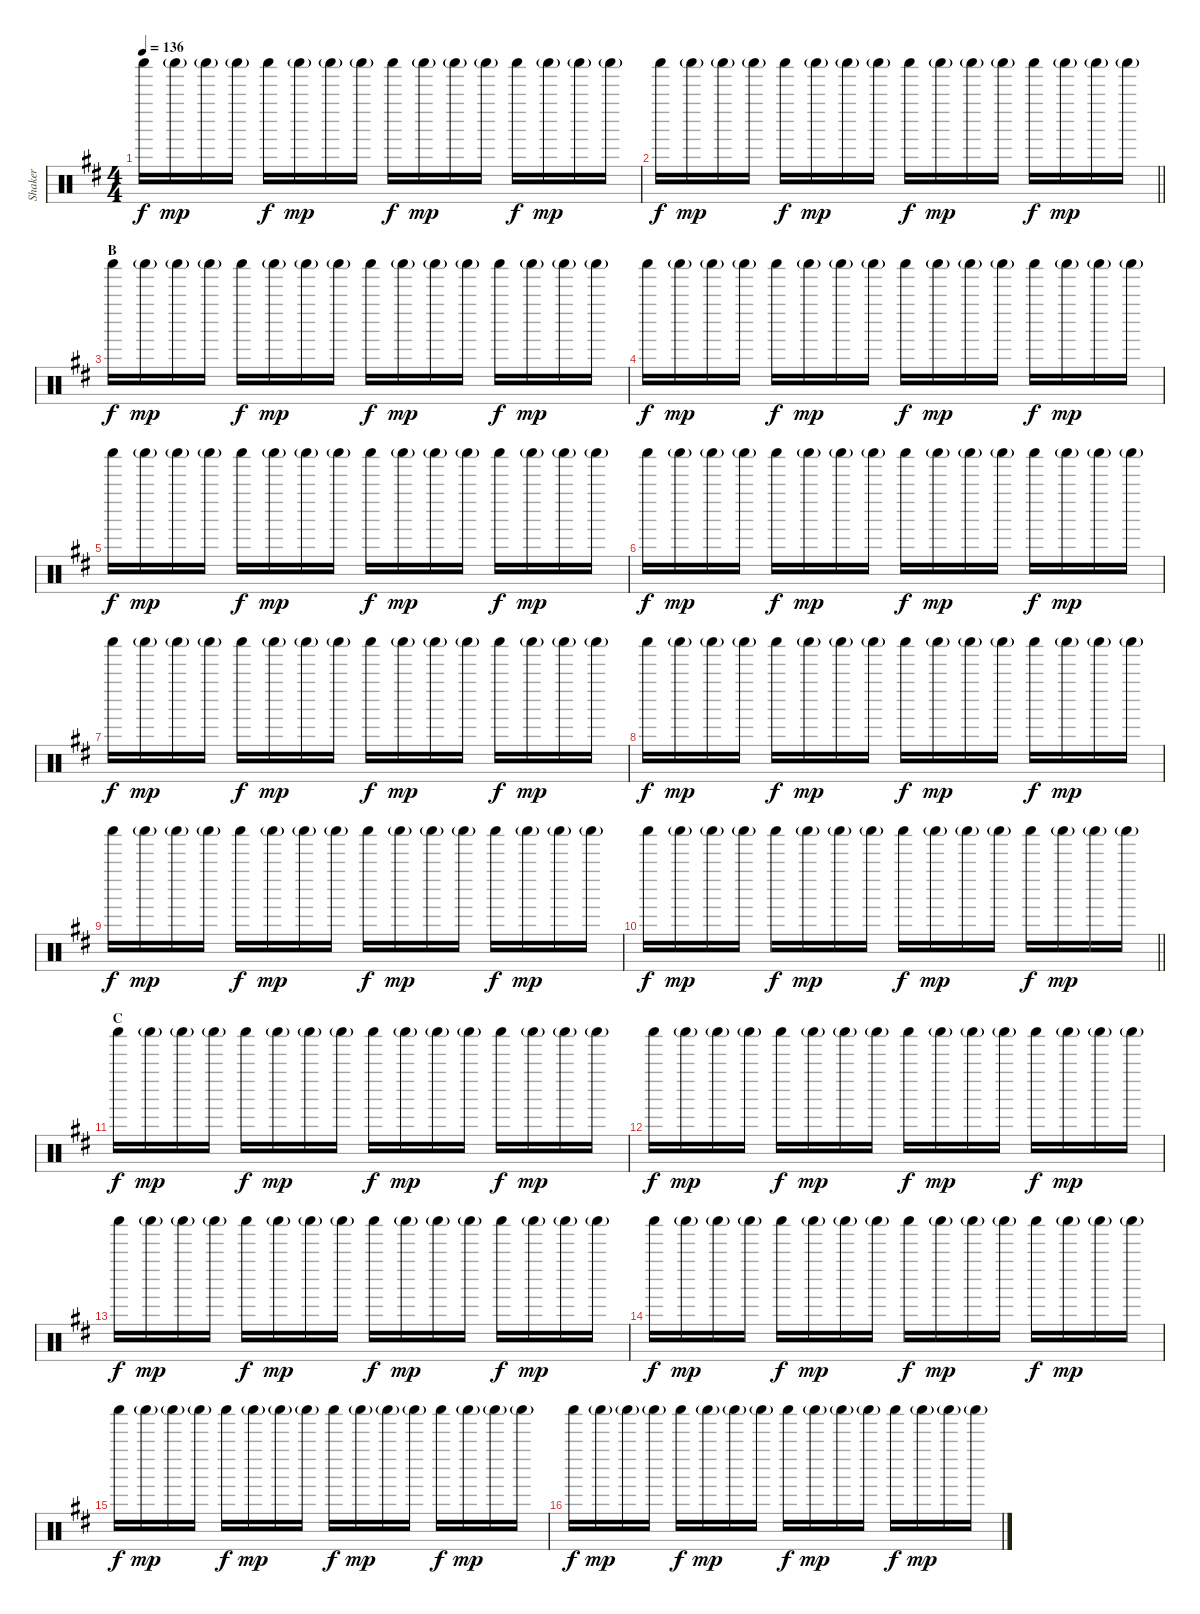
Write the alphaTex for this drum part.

\track ("Shaker" "Shaker") {instrument percussion}
\staff {score}
\articulation defaults
\ts (4 4)
\tempo 136
\clef neutral
\ks d "Shaker (hit)".16{dy f} "Shaker (hit)"{g}.16{dy mp} "Shaker (hit)"{g}.16 "Shaker (hit)"{g}.16 "Shaker (hit)".16{dy f} "Shaker (hit)"{g}.16{dy mp} "Shaker (hit)"{g}.16 "Shaker (hit)"{g}.16 "Shaker (hit)".16{dy f} "Shaker (hit)"{g}.16{dy mp} "Shaker (hit)"{g}.16 "Shaker (hit)"{g}.16 "Shaker (hit)".16{dy f} "Shaker (hit)"{g}.16{dy mp} "Shaker (hit)"{g}.16 "Shaker (hit)"{g}.16
|
\barLineRight lightlight "Shaker (hit)".16{dy f} "Shaker (hit)"{g}.16{dy mp} "Shaker (hit)"{g}.16 "Shaker (hit)"{g}.16 "Shaker (hit)".16{dy f} "Shaker (hit)"{g}.16{dy mp} "Shaker (hit)"{g}.16 "Shaker (hit)"{g}.16 "Shaker (hit)".16{dy f} "Shaker (hit)"{g}.16{dy mp} "Shaker (hit)"{g}.16 "Shaker (hit)"{g}.16 "Shaker (hit)".16{dy f} "Shaker (hit)"{g}.16{dy mp} "Shaker (hit)"{g}.16 "Shaker (hit)"{g}.16
|
\section ("" "B")
"Shaker (hit)".16{dy f} "Shaker (hit)"{g}.16{dy mp} "Shaker (hit)"{g}.16 "Shaker (hit)"{g}.16 "Shaker (hit)".16{dy f} "Shaker (hit)"{g}.16{dy mp} "Shaker (hit)"{g}.16 "Shaker (hit)"{g}.16 "Shaker (hit)".16{dy f} "Shaker (hit)"{g}.16{dy mp} "Shaker (hit)"{g}.16 "Shaker (hit)"{g}.16 "Shaker (hit)".16{dy f} "Shaker (hit)"{g}.16{dy mp} "Shaker (hit)"{g}.16 "Shaker (hit)"{g}.16 |
"Shaker (hit)".16{dy f} "Shaker (hit)"{g}.16{dy mp} "Shaker (hit)"{g}.16 "Shaker (hit)"{g}.16 "Shaker (hit)".16{dy f} "Shaker (hit)"{g}.16{dy mp} "Shaker (hit)"{g}.16 "Shaker (hit)"{g}.16 "Shaker (hit)".16{dy f} "Shaker (hit)"{g}.16{dy mp} "Shaker (hit)"{g}.16 "Shaker (hit)"{g}.16 "Shaker (hit)".16{dy f} "Shaker (hit)"{g}.16{dy mp} "Shaker (hit)"{g}.16 "Shaker (hit)"{g}.16 |
"Shaker (hit)".16{dy f} "Shaker (hit)"{g}.16{dy mp} "Shaker (hit)"{g}.16 "Shaker (hit)"{g}.16 "Shaker (hit)".16{dy f} "Shaker (hit)"{g}.16{dy mp} "Shaker (hit)"{g}.16 "Shaker (hit)"{g}.16 "Shaker (hit)".16{dy f} "Shaker (hit)"{g}.16{dy mp} "Shaker (hit)"{g}.16 "Shaker (hit)"{g}.16 "Shaker (hit)".16{dy f} "Shaker (hit)"{g}.16{dy mp} "Shaker (hit)"{g}.16 "Shaker (hit)"{g}.16 |
"Shaker (hit)".16{dy f} "Shaker (hit)"{g}.16{dy mp} "Shaker (hit)"{g}.16 "Shaker (hit)"{g}.16 "Shaker (hit)".16{dy f} "Shaker (hit)"{g}.16{dy mp} "Shaker (hit)"{g}.16 "Shaker (hit)"{g}.16 "Shaker (hit)".16{dy f} "Shaker (hit)"{g}.16{dy mp} "Shaker (hit)"{g}.16 "Shaker (hit)"{g}.16 "Shaker (hit)".16{dy f} "Shaker (hit)"{g}.16{dy mp} "Shaker (hit)"{g}.16 "Shaker (hit)"{g}.16 |
"Shaker (hit)".16{dy f} "Shaker (hit)"{g}.16{dy mp} "Shaker (hit)"{g}.16 "Shaker (hit)"{g}.16 "Shaker (hit)".16{dy f} "Shaker (hit)"{g}.16{dy mp} "Shaker (hit)"{g}.16 "Shaker (hit)"{g}.16 "Shaker (hit)".16{dy f} "Shaker (hit)"{g}.16{dy mp} "Shaker (hit)"{g}.16 "Shaker (hit)"{g}.16 "Shaker (hit)".16{dy f} "Shaker (hit)"{g}.16{dy mp} "Shaker (hit)"{g}.16 "Shaker (hit)"{g}.16 |
"Shaker (hit)".16{dy f} "Shaker (hit)"{g}.16{dy mp} "Shaker (hit)"{g}.16 "Shaker (hit)"{g}.16 "Shaker (hit)".16{dy f} "Shaker (hit)"{g}.16{dy mp} "Shaker (hit)"{g}.16 "Shaker (hit)"{g}.16 "Shaker (hit)".16{dy f} "Shaker (hit)"{g}.16{dy mp} "Shaker (hit)"{g}.16 "Shaker (hit)"{g}.16 "Shaker (hit)".16{dy f} "Shaker (hit)"{g}.16{dy mp} "Shaker (hit)"{g}.16 "Shaker (hit)"{g}.16 |
"Shaker (hit)".16{dy f} "Shaker (hit)"{g}.16{dy mp} "Shaker (hit)"{g}.16 "Shaker (hit)"{g}.16 "Shaker (hit)".16{dy f} "Shaker (hit)"{g}.16{dy mp} "Shaker (hit)"{g}.16 "Shaker (hit)"{g}.16 "Shaker (hit)".16{dy f} "Shaker (hit)"{g}.16{dy mp} "Shaker (hit)"{g}.16 "Shaker (hit)"{g}.16 "Shaker (hit)".16{dy f} "Shaker (hit)"{g}.16{dy mp} "Shaker (hit)"{g}.16 "Shaker (hit)"{g}.16 |
\barLineRight lightlight "Shaker (hit)".16{dy f} "Shaker (hit)"{g}.16{dy mp} "Shaker (hit)"{g}.16 "Shaker (hit)"{g}.16 "Shaker (hit)".16{dy f} "Shaker (hit)"{g}.16{dy mp} "Shaker (hit)"{g}.16 "Shaker (hit)"{g}.16 "Shaker (hit)".16{dy f} "Shaker (hit)"{g}.16{dy mp} "Shaker (hit)"{g}.16 "Shaker (hit)"{g}.16 "Shaker (hit)".16{dy f} "Shaker (hit)"{g}.16{dy mp} "Shaker (hit)"{g}.16 "Shaker (hit)"{g}.16
|
\section ("" "C")
"Shaker (hit)".16{dy f} "Shaker (hit)"{g}.16{dy mp} "Shaker (hit)"{g}.16 "Shaker (hit)"{g}.16 "Shaker (hit)".16{dy f} "Shaker (hit)"{g}.16{dy mp} "Shaker (hit)"{g}.16 "Shaker (hit)"{g}.16 "Shaker (hit)".16{dy f} "Shaker (hit)"{g}.16{dy mp} "Shaker (hit)"{g}.16 "Shaker (hit)"{g}.16 "Shaker (hit)".16{dy f} "Shaker (hit)"{g}.16{dy mp} "Shaker (hit)"{g}.16 "Shaker (hit)"{g}.16 |
"Shaker (hit)".16{dy f} "Shaker (hit)"{g}.16{dy mp} "Shaker (hit)"{g}.16 "Shaker (hit)"{g}.16 "Shaker (hit)".16{dy f} "Shaker (hit)"{g}.16{dy mp} "Shaker (hit)"{g}.16 "Shaker (hit)"{g}.16 "Shaker (hit)".16{dy f} "Shaker (hit)"{g}.16{dy mp} "Shaker (hit)"{g}.16 "Shaker (hit)"{g}.16 "Shaker (hit)".16{dy f} "Shaker (hit)"{g}.16{dy mp} "Shaker (hit)"{g}.16 "Shaker (hit)"{g}.16 |
"Shaker (hit)".16{dy f} "Shaker (hit)"{g}.16{dy mp} "Shaker (hit)"{g}.16 "Shaker (hit)"{g}.16 "Shaker (hit)".16{dy f} "Shaker (hit)"{g}.16{dy mp} "Shaker (hit)"{g}.16 "Shaker (hit)"{g}.16 "Shaker (hit)".16{dy f} "Shaker (hit)"{g}.16{dy mp} "Shaker (hit)"{g}.16 "Shaker (hit)"{g}.16 "Shaker (hit)".16{dy f} "Shaker (hit)"{g}.16{dy mp} "Shaker (hit)"{g}.16 "Shaker (hit)"{g}.16 |
"Shaker (hit)".16{dy f} "Shaker (hit)"{g}.16{dy mp} "Shaker (hit)"{g}.16 "Shaker (hit)"{g}.16 "Shaker (hit)".16{dy f} "Shaker (hit)"{g}.16{dy mp} "Shaker (hit)"{g}.16 "Shaker (hit)"{g}.16 "Shaker (hit)".16{dy f} "Shaker (hit)"{g}.16{dy mp} "Shaker (hit)"{g}.16 "Shaker (hit)"{g}.16 "Shaker (hit)".16{dy f} "Shaker (hit)"{g}.16{dy mp} "Shaker (hit)"{g}.16 "Shaker (hit)"{g}.16 |
"Shaker (hit)".16{dy f} "Shaker (hit)"{g}.16{dy mp} "Shaker (hit)"{g}.16 "Shaker (hit)"{g}.16 "Shaker (hit)".16{dy f} "Shaker (hit)"{g}.16{dy mp} "Shaker (hit)"{g}.16 "Shaker (hit)"{g}.16 "Shaker (hit)".16{dy f} "Shaker (hit)"{g}.16{dy mp} "Shaker (hit)"{g}.16 "Shaker (hit)"{g}.16 "Shaker (hit)".16{dy f} "Shaker (hit)"{g}.16{dy mp} "Shaker (hit)"{g}.16 "Shaker (hit)"{g}.16 |
"Shaker (hit)".16{dy f} "Shaker (hit)"{g}.16{dy mp} "Shaker (hit)"{g}.16 "Shaker (hit)"{g}.16 "Shaker (hit)".16{dy f} "Shaker (hit)"{g}.16{dy mp} "Shaker (hit)"{g}.16 "Shaker (hit)"{g}.16 "Shaker (hit)".16{dy f} "Shaker (hit)"{g}.16{dy mp} "Shaker (hit)"{g}.16 "Shaker (hit)"{g}.16 "Shaker (hit)".16{dy f} "Shaker (hit)"{g}.16{dy mp} "Shaker (hit)"{g}.16 "Shaker (hit)"{g}.16
